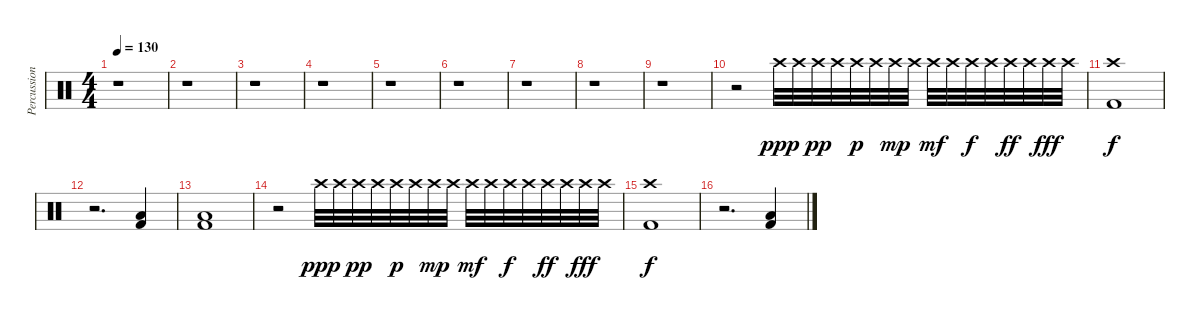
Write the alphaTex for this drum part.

\track ("Percussion" "Percussion") {instrument percussion}
\staff {score}
\articulation defaults
\ts (4 4)
\tempo 130
\clef neutral
\ks c
r.1{dy ppp} |
r.1 |
r.1 |
r.1 |
r.1 |
r.1 |
r.1 |
r.1 |
r.1 |
r.2 "Crash high (hit)".32 "Crash high (hit)".32 "Crash high (hit)".32{dy pp} "Crash high (hit)".32 "Crash high (hit)".32{dy p} "Crash high (hit)".32 "Crash high (hit)".32{dy mp} "Crash high (hit)".32 "Crash high (hit)".32{dy mf} "Crash high (hit)".32 "Crash high (hit)".32{dy f} "Crash high (hit)".32 "Crash high (hit)".32{dy ff} "Crash high (hit)".32 "Crash high (hit)".32{dy fff} "Crash high (hit)".32 |
("Crash high (hit)" "Kick (hit) 2").1{dy f} |
r.2{d} ("Low Floor Tom (hit)" "Kick (hit) 2").4 |
("Low Floor Tom (hit)" "Kick (hit) 2").1 |
r.2 "Crash high (hit)".32{dy ppp} "Crash high (hit)".32 "Crash high (hit)".32{dy pp} "Crash high (hit)".32 "Crash high (hit)".32{dy p} "Crash high (hit)".32 "Crash high (hit)".32{dy mp} "Crash high (hit)".32 "Crash high (hit)".32{dy mf} "Crash high (hit)".32 "Crash high (hit)".32{dy f} "Crash high (hit)".32 "Crash high (hit)".32{dy ff} "Crash high (hit)".32 "Crash high (hit)".32{dy fff} "Crash high (hit)".32 |
("Crash high (hit)" "Kick (hit) 2").1{dy f} |
r.2{d} ("Low Floor Tom (hit)" "Kick (hit) 2").4
